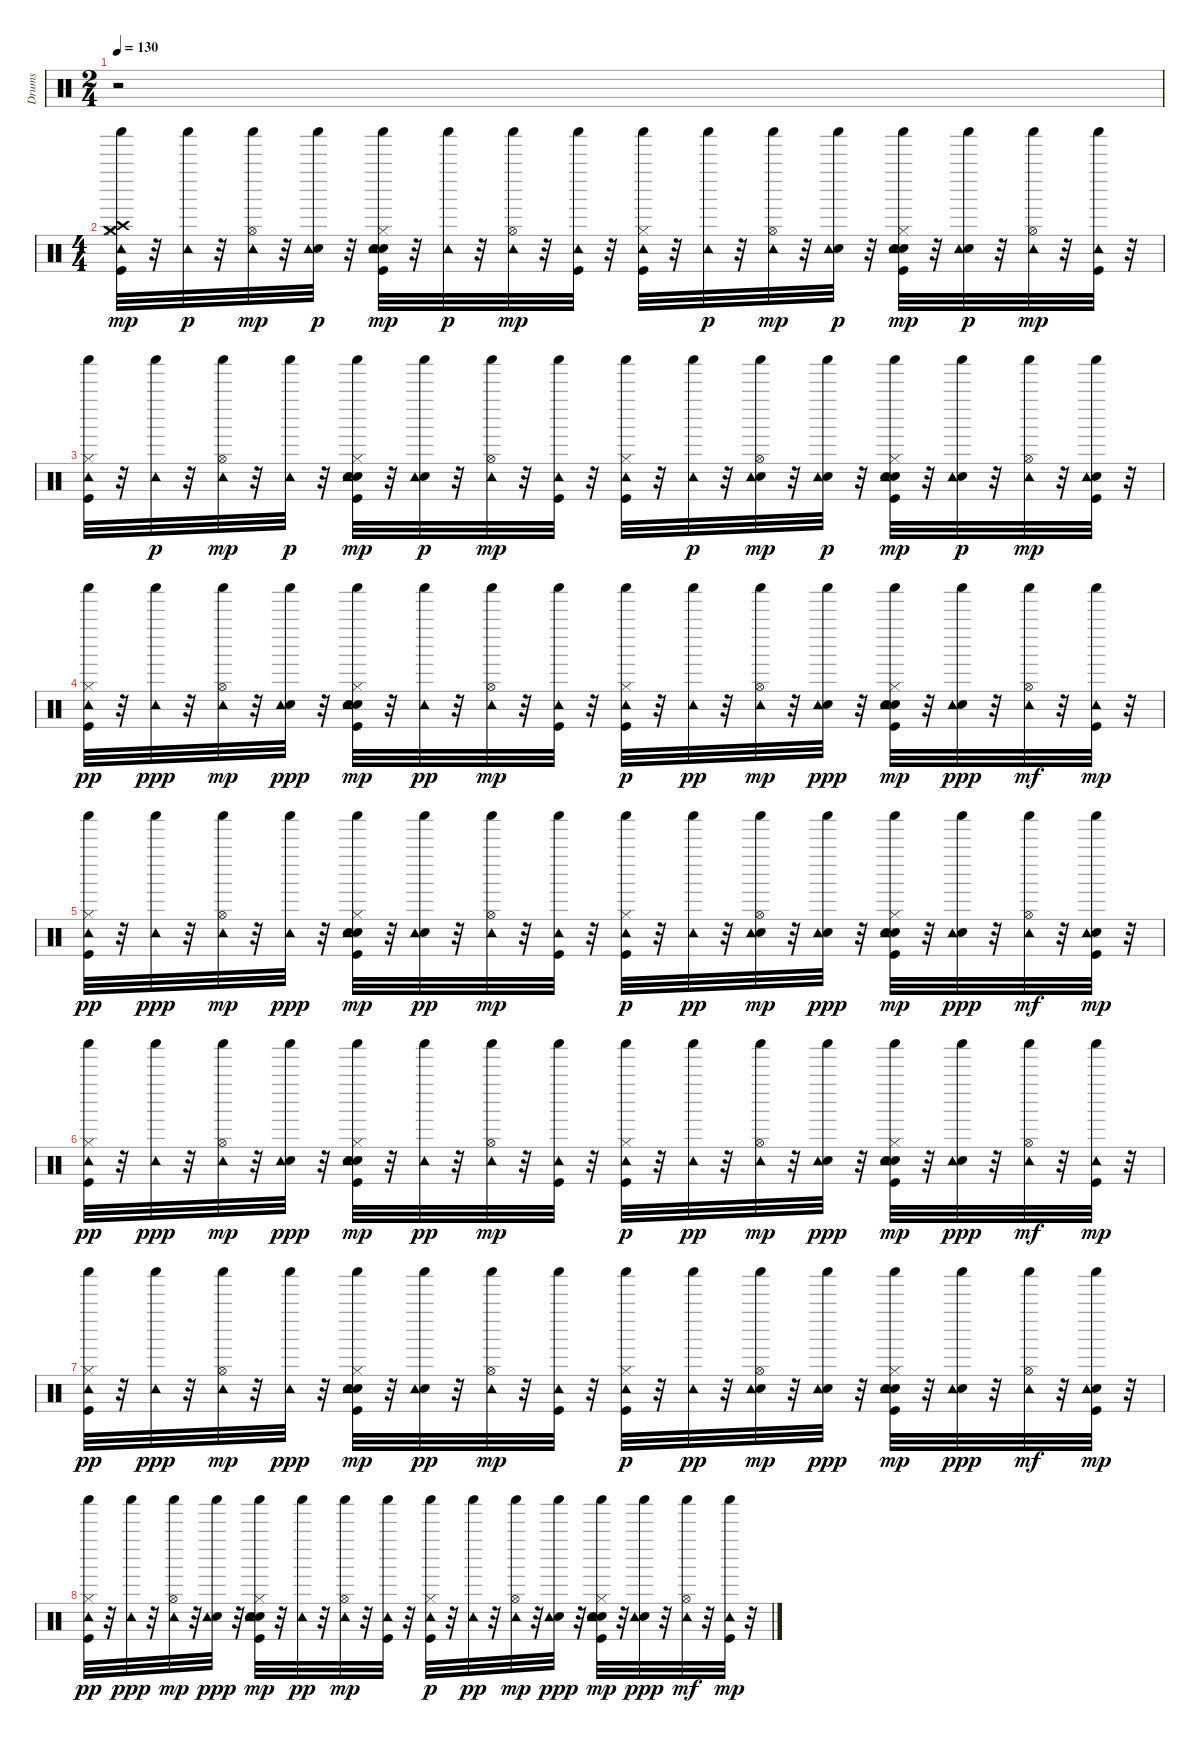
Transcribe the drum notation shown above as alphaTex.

\track ("Drums" "Drums") {instrument percussion}
\staff {score}
\articulation defaults
\ts (2 4)
\tempo 130
\clef neutral
\ks c
r.2{dy p} |
\ts (4 4)
("Kick (hit)" "Hi-Hat (closed)" "Crash high (hit)" "Crash medium (hit)" "Tambourine (hit)" "Shaker (hit)").32{dy mp} r.32 ("Tambourine (hit)" "Shaker (hit)").32{dy p} r.32 ("Tambourine (hit)" "Hi-Hat (open)" "Shaker (hit)").32{dy mp} r.32 ("Electric Snare (hit)" "Tambourine (hit)" "Shaker (hit)").32{dy p} r.32 ("Kick (hit)" "Hi-Hat (closed)" "Hand Clap (hit)" "Tambourine (hit)" "Shaker (hit)" "Snare (hit) 2").32{dy mp} r.32 ("Tambourine (hit)" "Shaker (hit)").32{dy p} r.32 ("Tambourine (hit)" "Hi-Hat (open)" "Shaker (hit)").32{dy mp} r.32 ("Tambourine (hit)" "Shaker (hit)" "Kick (hit)").32 r.32 ("Kick (hit)" "Hi-Hat (closed)" "Tambourine (hit)" "Shaker (hit)").32 r.32 ("Tambourine (hit)" "Shaker (hit)").32{dy p} r.32 ("Tambourine (hit)" "Hi-Hat (open)" "Shaker (hit)").32{dy mp} r.32 ("Electric Snare (hit)" "Tambourine (hit)" "Shaker (hit)").32{dy p} r.32 ("Kick (hit)" "Hi-Hat (closed)" "Hand Clap (hit)" "Tambourine (hit)" "Shaker (hit)" "Snare (hit) 2").32{dy mp} r.32 ("Electric Snare (hit)" "Tambourine (hit)" "Shaker (hit)").32{dy p} r.32 ("Tambourine (hit)" "Hi-Hat (open)" "Shaker (hit)").32{dy mp} r.32 ("Tambourine (hit)" "Shaker (hit)" "Kick (hit)").32 r.32 |
("Kick (hit)" "Hi-Hat (closed)" "Tambourine (hit)" "Shaker (hit)").32 r.32 ("Tambourine (hit)" "Shaker (hit)").32{dy p} r.32 ("Tambourine (hit)" "Hi-Hat (open)" "Shaker (hit)").32{dy mp} r.32 ("Tambourine (hit)" "Shaker (hit)").32{dy p} r.32 ("Kick (hit)" "Hi-Hat (closed)" "Hand Clap (hit)" "Tambourine (hit)" "Shaker (hit)" "Snare (hit) 2").32{dy mp} r.32 ("Electric Snare (hit)" "Tambourine (hit)" "Shaker (hit)").32{dy p} r.32 ("Tambourine (hit)" "Hi-Hat (open)" "Shaker (hit)").32{dy mp} r.32 ("Tambourine (hit)" "Shaker (hit)" "Kick (hit)").32 r.32 ("Kick (hit)" "Hi-Hat (closed)" "Tambourine (hit)" "Shaker (hit)").32 r.32 ("Tambourine (hit)" "Shaker (hit)").32{dy p} r.32 ("Hand Clap (hit)" "Tambourine (hit)" "Hi-Hat (open)" "Shaker (hit)").32{dy mp} r.32 ("Electric Snare (hit)" "Tambourine (hit)" "Shaker (hit)").32{dy p} r.32 ("Kick (hit)" "Hi-Hat (closed)" "Hand Clap (hit)" "Tambourine (hit)" "Shaker (hit)" "Snare (hit) 2").32{dy mp} r.32 ("Electric Snare (hit)" "Tambourine (hit)" "Shaker (hit)").32{dy p} r.32 ("Tambourine (hit)" "Hi-Hat (open)" "Shaker (hit)").32{dy mp} r.32 ("Electric Snare (hit)" "Tambourine (hit)" "Shaker (hit)" "Kick (hit)").32 r.32 |
("Kick (hit)" "Shaker (hit)" "Hi-Hat (closed)" "Tambourine (hit)").32{dy pp} r.32 ("Shaker (hit)" "Tambourine (hit)").32{dy ppp} r.32 ("Shaker (hit)" "Hi-Hat (open)" "Tambourine (hit)").32{dy mp} r.32 ("Shaker (hit)" "Electric Snare (hit)" "Tambourine (hit)").32{dy ppp} r.32 ("Kick (hit)" "Shaker (hit)" "Hi-Hat (closed)" "Hand Clap (hit)" "Tambourine (hit)" "Snare (hit) 2").32{dy mp} r.32 ("Shaker (hit)" "Tambourine (hit)").32{dy pp} r.32 ("Shaker (hit)" "Hi-Hat (open)" "Tambourine (hit)").32{dy mp} r.32 ("Shaker (hit)" "Tambourine (hit)" "Kick (hit)").32 r.32 ("Kick (hit)" "Shaker (hit)" "Hi-Hat (closed)" "Tambourine (hit)").32{dy p} r.32 ("Shaker (hit)" "Tambourine (hit)").32{dy pp} r.32 ("Shaker (hit)" "Hi-Hat (open)" "Tambourine (hit)").32{dy mp} r.32 ("Shaker (hit)" "Electric Snare (hit)" "Tambourine (hit)").32{dy ppp} r.32 ("Kick (hit)" "Shaker (hit)" "Hi-Hat (closed)" "Hand Clap (hit)" "Tambourine (hit)" "Snare (hit) 2").32{dy mp} r.32 ("Shaker (hit)" "Electric Snare (hit)" "Tambourine (hit)").32{dy ppp} r.32 ("Shaker (hit)" "Hi-Hat (open)" "Tambourine (hit)").32{dy mf} r.32 ("Shaker (hit)" "Tambourine (hit)" "Kick (hit)").32{dy mp} r.32 |
("Kick (hit)" "Shaker (hit)" "Hi-Hat (closed)" "Tambourine (hit)").32{dy pp} r.32 ("Shaker (hit)" "Tambourine (hit)").32{dy ppp} r.32 ("Shaker (hit)" "Hi-Hat (open)" "Tambourine (hit)").32{dy mp} r.32 ("Shaker (hit)" "Tambourine (hit)").32{dy ppp} r.32 ("Kick (hit)" "Shaker (hit)" "Hi-Hat (closed)" "Hand Clap (hit)" "Tambourine (hit)" "Snare (hit) 2").32{dy mp} r.32 ("Shaker (hit)" "Electric Snare (hit)" "Tambourine (hit)").32{dy pp} r.32 ("Shaker (hit)" "Hi-Hat (open)" "Tambourine (hit)").32{dy mp} r.32 ("Shaker (hit)" "Tambourine (hit)" "Kick (hit)").32 r.32 ("Kick (hit)" "Shaker (hit)" "Hi-Hat (closed)" "Tambourine (hit)").32{dy p} r.32 ("Shaker (hit)" "Tambourine (hit)").32{dy pp} r.32 ("Shaker (hit)" "Hand Clap (hit)" "Hi-Hat (open)" "Tambourine (hit)").32{dy mp} r.32 ("Shaker (hit)" "Electric Snare (hit)" "Tambourine (hit)").32{dy ppp} r.32 ("Kick (hit)" "Shaker (hit)" "Hi-Hat (closed)" "Hand Clap (hit)" "Tambourine (hit)" "Snare (hit) 2").32{dy mp} r.32 ("Shaker (hit)" "Electric Snare (hit)" "Tambourine (hit)").32{dy ppp} r.32 ("Shaker (hit)" "Hi-Hat (open)" "Tambourine (hit)").32{dy mf} r.32 ("Shaker (hit)" "Electric Snare (hit)" "Tambourine (hit)" "Kick (hit)").32{dy mp} r.32 |
("Kick (hit)" "Hi-Hat (closed)" "Shaker (hit)" "Tambourine (hit)").32{dy pp} r.32 ("Shaker (hit)" "Tambourine (hit)").32{dy ppp} r.32 ("Shaker (hit)" "Hi-Hat (open)" "Tambourine (hit)").32{dy mp} r.32 ("Shaker (hit)" "Electric Snare (hit)" "Tambourine (hit)").32{dy ppp} r.32 ("Kick (hit)" "Hi-Hat (closed)" "Hand Clap (hit)" "Shaker (hit)" "Tambourine (hit)" "Snare (hit) 2").32{dy mp} r.32 ("Shaker (hit)" "Tambourine (hit)").32{dy pp} r.32 ("Shaker (hit)" "Hi-Hat (open)" "Tambourine (hit)").32{dy mp} r.32 ("Shaker (hit)" "Tambourine (hit)" "Kick (hit)").32 r.32 ("Kick (hit)" "Hi-Hat (closed)" "Shaker (hit)" "Tambourine (hit)").32{dy p} r.32 ("Shaker (hit)" "Tambourine (hit)").32{dy pp} r.32 ("Shaker (hit)" "Hi-Hat (open)" "Tambourine (hit)").32{dy mp} r.32 ("Shaker (hit)" "Electric Snare (hit)" "Tambourine (hit)").32{dy ppp} r.32 ("Kick (hit)" "Hi-Hat (closed)" "Hand Clap (hit)" "Shaker (hit)" "Tambourine (hit)" "Snare (hit) 2").32{dy mp} r.32 ("Shaker (hit)" "Electric Snare (hit)" "Tambourine (hit)").32{dy ppp} r.32 ("Shaker (hit)" "Hi-Hat (open)" "Tambourine (hit)").32{dy mf} r.32 ("Shaker (hit)" "Tambourine (hit)" "Kick (hit)").32{dy mp} r.32 |
("Kick (hit)" "Hi-Hat (closed)" "Shaker (hit)" "Tambourine (hit)").32{dy pp} r.32 ("Shaker (hit)" "Tambourine (hit)").32{dy ppp} r.32 ("Shaker (hit)" "Hi-Hat (open)" "Tambourine (hit)").32{dy mp} r.32 ("Shaker (hit)" "Tambourine (hit)").32{dy ppp} r.32 ("Kick (hit)" "Hi-Hat (closed)" "Hand Clap (hit)" "Shaker (hit)" "Tambourine (hit)" "Snare (hit) 2").32{dy mp} r.32 ("Shaker (hit)" "Electric Snare (hit)" "Tambourine (hit)").32{dy pp} r.32 ("Shaker (hit)" "Hi-Hat (open)" "Tambourine (hit)").32{dy mp} r.32 ("Shaker (hit)" "Tambourine (hit)" "Kick (hit)").32 r.32 ("Kick (hit)" "Hi-Hat (closed)" "Shaker (hit)" "Tambourine (hit)").32{dy p} r.32 ("Shaker (hit)" "Tambourine (hit)").32{dy pp} r.32 ("Hand Clap (hit)" "Shaker (hit)" "Hi-Hat (open)" "Tambourine (hit)").32{dy mp} r.32 ("Shaker (hit)" "Electric Snare (hit)" "Tambourine (hit)").32{dy ppp} r.32 ("Kick (hit)" "Hi-Hat (closed)" "Hand Clap (hit)" "Shaker (hit)" "Tambourine (hit)" "Snare (hit) 2").32{dy mp} r.32 ("Shaker (hit)" "Electric Snare (hit)" "Tambourine (hit)").32{dy ppp} r.32 ("Shaker (hit)" "Hi-Hat (open)" "Tambourine (hit)").32{dy mf} r.32 ("Shaker (hit)" "Electric Snare (hit)" "Tambourine (hit)" "Kick (hit)").32{dy mp} r.32 |
("Kick (hit)" "Shaker (hit)" "Hi-Hat (closed)" "Tambourine (hit)").32{dy pp} r.32 ("Shaker (hit)" "Tambourine (hit)").32{dy ppp} r.32 ("Shaker (hit)" "Hi-Hat (open)" "Tambourine (hit)").32{dy mp} r.32 ("Shaker (hit)" "Electric Snare (hit)" "Tambourine (hit)").32{dy ppp} r.32 ("Kick (hit)" "Shaker (hit)" "Hi-Hat (closed)" "Hand Clap (hit)" "Tambourine (hit)" "Snare (hit) 2").32{dy mp} r.32 ("Shaker (hit)" "Tambourine (hit)").32{dy pp} r.32 ("Shaker (hit)" "Hi-Hat (open)" "Tambourine (hit)").32{dy mp} r.32 ("Shaker (hit)" "Tambourine (hit)" "Kick (hit)").32 r.32 ("Kick (hit)" "Shaker (hit)" "Hi-Hat (closed)" "Tambourine (hit)").32{dy p} r.32 ("Shaker (hit)" "Tambourine (hit)").32{dy pp} r.32 ("Shaker (hit)" "Hi-Hat (open)" "Tambourine (hit)").32{dy mp} r.32 ("Shaker (hit)" "Electric Snare (hit)" "Tambourine (hit)").32{dy ppp} r.32 ("Kick (hit)" "Shaker (hit)" "Hi-Hat (closed)" "Hand Clap (hit)" "Tambourine (hit)" "Snare (hit) 2").32{dy mp} r.32 ("Shaker (hit)" "Electric Snare (hit)" "Tambourine (hit)").32{dy ppp} r.32 ("Shaker (hit)" "Hi-Hat (open)" "Tambourine (hit)").32{dy mf} r.32 ("Shaker (hit)" "Tambourine (hit)" "Kick (hit)").32{dy mp} r.32
